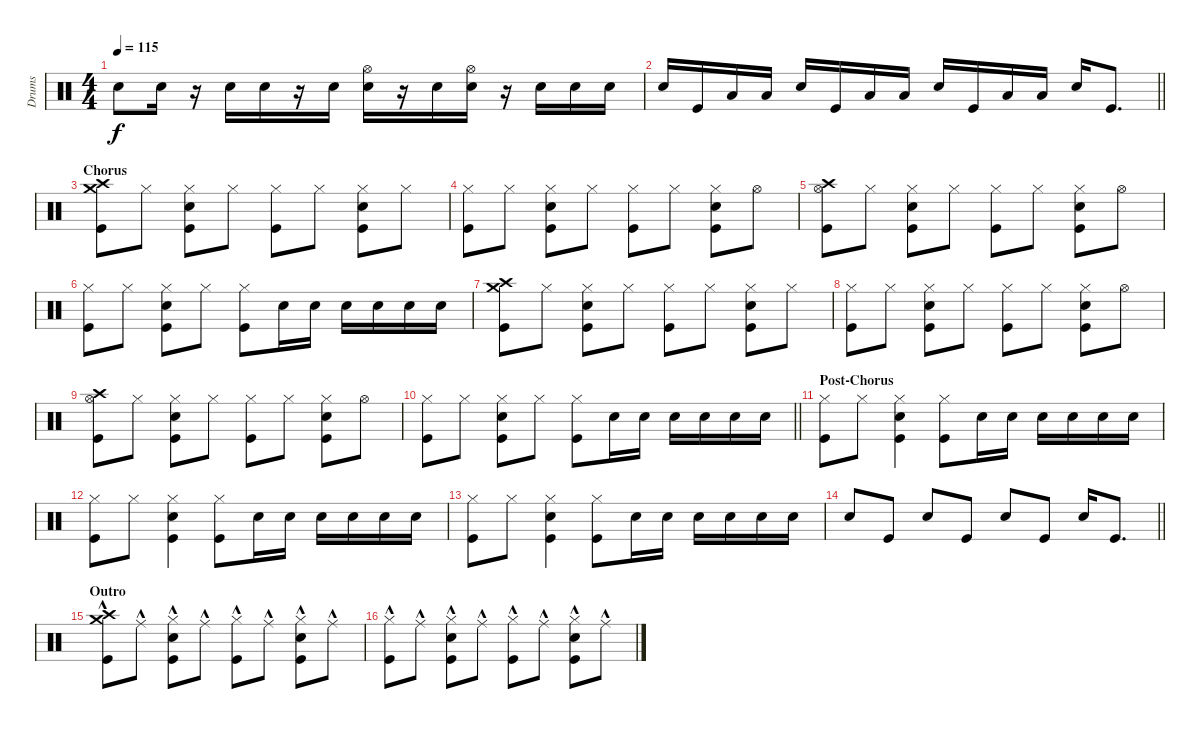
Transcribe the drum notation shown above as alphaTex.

\track ("Drums" "Drums") {instrument percussion}
\staff {score}
\articulation defaults
\ts (4 4)
\tempo 115
\clef neutral
\ks c "Snare (hit) 2".8{dy f} "Snare (hit) 2".16
r.16 "Snare (hit) 2".16 "Snare (hit) 2".16 r.16 "Snare (hit) 2".16 ("Hi-Hat (open)" "Snare (hit) 2").16 r.16 "Snare (hit) 2".16 ("Hi-Hat (open)" "Snare (hit) 2").16 r.16 "Snare (hit) 2".16 "Snare (hit) 2".16 "Snare (hit) 2".16 |
\barLineRight lightlight "Snare (hit) 2".16 "Kick (hit)".16 "Low Floor Tom (hit)".16 "Low Floor Tom (hit)".16 "Snare (hit) 2".16 "Kick (hit)".16 "Low Floor Tom (hit)".16 "Low Floor Tom (hit)".16 "Snare (hit) 2".16 "Kick (hit)".16 "Low Floor Tom (hit)".16 "Low Floor Tom (hit)".16 "Snare (hit) 2".16 "Kick (hit)".8{d}
|
\section ("" "Chorus")
("Crash medium (hit)" "Crash high (hit)" "Kick (hit)").8 "Hi-Hat (closed)".8 ("Hi-Hat (closed)" "Snare (hit) 2" "Kick (hit)").8 "Hi-Hat (closed)".8 ("Hi-Hat (closed)" "Kick (hit)").8 "Hi-Hat (closed)".8 ("Hi-Hat (closed)" "Snare (hit) 2" "Kick (hit)").8 "Hi-Hat (closed)".8 |
("Hi-Hat (closed)" "Kick (hit)").8 "Hi-Hat (closed)".8 ("Hi-Hat (closed)" "Snare (hit) 2" "Kick (hit)").8 "Hi-Hat (closed)".8 ("Hi-Hat (closed)" "Kick (hit)").8 "Hi-Hat (closed)".8 ("Hi-Hat (closed)" "Snare (hit) 2" "Kick (hit)").8 "Hi-Hat (open)".8 |
("Crash high (hit)" "Hi-Hat (open)" "Kick (hit)").8 "Hi-Hat (closed)".8 ("Hi-Hat (closed)" "Snare (hit) 2" "Kick (hit)").8 "Hi-Hat (closed)".8 ("Hi-Hat (closed)" "Kick (hit)").8 "Hi-Hat (closed)".8 ("Hi-Hat (closed)" "Snare (hit) 2" "Kick (hit)").8 "Hi-Hat (open)".8 |
("Hi-Hat (closed)" "Kick (hit)").8 "Hi-Hat (closed)".8 ("Hi-Hat (closed)" "Snare (hit) 2" "Kick (hit)").8 "Hi-Hat (closed)".8 ("Hi-Hat (closed)" "Kick (hit)").8 "Snare (hit) 2".16 "Snare (hit) 2".16 "Snare (hit) 2".16 "Snare (hit) 2".16 "Snare (hit) 2".16 "Snare (hit) 2".16 |
("Crash medium (hit)" "Crash high (hit)" "Kick (hit)").8 "Hi-Hat (closed)".8 ("Hi-Hat (closed)" "Snare (hit) 2" "Kick (hit)").8 "Hi-Hat (closed)".8 ("Hi-Hat (closed)" "Kick (hit)").8 "Hi-Hat (closed)".8 ("Hi-Hat (closed)" "Snare (hit) 2" "Kick (hit)").8 "Hi-Hat (closed)".8 |
("Hi-Hat (closed)" "Kick (hit)").8 "Hi-Hat (closed)".8 ("Hi-Hat (closed)" "Snare (hit) 2" "Kick (hit)").8 "Hi-Hat (closed)".8 ("Hi-Hat (closed)" "Kick (hit)").8 "Hi-Hat (closed)".8 ("Hi-Hat (closed)" "Snare (hit) 2" "Kick (hit)").8 "Hi-Hat (open)".8 |
("Crash high (hit)" "Hi-Hat (open)" "Kick (hit)").8 "Hi-Hat (closed)".8 ("Hi-Hat (closed)" "Snare (hit) 2" "Kick (hit)").8 "Hi-Hat (closed)".8 ("Hi-Hat (closed)" "Kick (hit)").8 "Hi-Hat (closed)".8 ("Hi-Hat (closed)" "Snare (hit) 2" "Kick (hit)").8 "Hi-Hat (open)".8 |
\barLineRight lightlight
("Hi-Hat (closed)" "Kick (hit)").8 "Hi-Hat (closed)".8 ("Hi-Hat (closed)" "Snare (hit) 2" "Kick (hit)").8 "Hi-Hat (closed)".8 ("Hi-Hat (closed)" "Kick (hit)").8 "Snare (hit) 2".16 "Snare (hit) 2".16 "Snare (hit) 2".16 "Snare (hit) 2".16 "Snare (hit) 2".16 "Snare (hit) 2".16 |
\section ("" "Post-Chorus")
("Hi-Hat (closed)" "Kick (hit)").8 "Hi-Hat (closed)".8 ("Hi-Hat (closed)" "Snare (hit) 2" "Kick (hit)").4 ("Hi-Hat (closed)" "Kick (hit)").8 "Snare (hit) 2".16 "Snare (hit) 2".16 "Snare (hit) 2".16 "Snare (hit) 2".16 "Snare (hit) 2".16 "Snare (hit) 2".16 |
("Hi-Hat (closed)" "Kick (hit)").8 "Hi-Hat (closed)".8 ("Hi-Hat (closed)" "Snare (hit) 2" "Kick (hit)").4 ("Hi-Hat (closed)" "Kick (hit)").8 "Snare (hit) 2".16 "Snare (hit) 2".16 "Snare (hit) 2".16 "Snare (hit) 2".16 "Snare (hit) 2".16 "Snare (hit) 2".16 |
("Hi-Hat (closed)" "Kick (hit)").8 "Hi-Hat (closed)".8 ("Hi-Hat (closed)" "Snare (hit) 2" "Kick (hit)").4 ("Hi-Hat (closed)" "Kick (hit)").8 "Snare (hit) 2".16 "Snare (hit) 2".16 "Snare (hit) 2".16 "Snare (hit) 2".16 "Snare (hit) 2".16 "Snare (hit) 2".16 |
\barLineRight lightlight "Snare (hit) 2".8 "Kick (hit)".8 "Snare (hit) 2".8 "Kick (hit)".8 "Snare (hit) 2".8 "Kick (hit)".8 "Snare (hit) 2".16 "Kick (hit)".8{d}
|
\section ("" "Outro")
("Crash medium (hit)"{hac} "Crash high (hit)"{hac} "Kick (hit)"{hac}).8 "Ride (middle)"{hac}.8 ("Hi-Hat (closed)"{hac} "Snare (hit) 2"{hac} "Kick (hit)"{hac}).8 "Ride (middle)"{hac}.8 ("Hi-Hat (closed)"{hac} "Kick (hit)"{hac}).8 "Ride (middle)"{hac}.8 ("Hi-Hat (closed)"{hac} "Snare (hit) 2"{hac} "Kick (hit)"{hac}).8 "Ride (middle)"{hac}.8 |
("Hi-Hat (closed)"{hac} "Kick (hit)"{hac}).8 "Ride (middle)"{hac}.8 ("Hi-Hat (closed)"{hac} "Snare (hit) 2"{hac} "Kick (hit)"{hac}).8 "Ride (middle)"{hac}.8 ("Hi-Hat (closed)"{hac} "Kick (hit)"{hac}).8 "Ride (middle)"{hac}.8 ("Hi-Hat (closed)"{hac} "Snare (hit) 2"{hac} "Kick (hit)"{hac}).8 "Ride (middle)"{hac}.8
